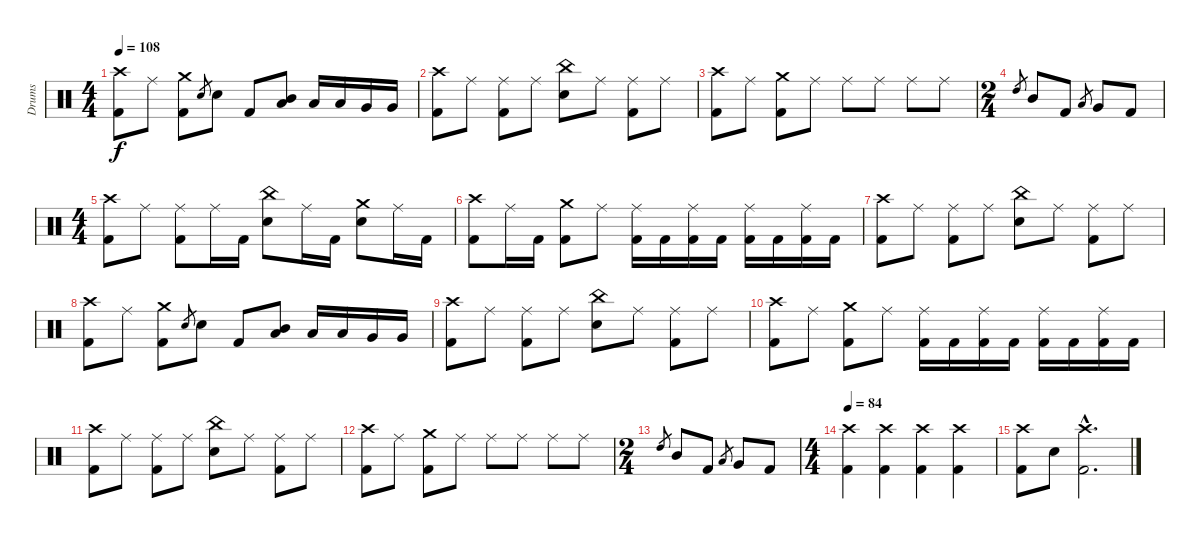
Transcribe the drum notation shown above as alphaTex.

\track ("Drums" "Drums") {instrument percussion}
\staff {score}
\articulation defaults
\ts (4 4)
\tempo 108
\clef neutral
\ks c
("Crash high (hit)" "Kick (hit) 2").8{dy f} "Ride (middle)".8 ("Crash medium (hit)" "Kick (hit) 2").8 "Electric Snare (hit)".8{gr} "Electric Snare (hit)".8 "Kick (hit) 2".8 ("Mid Tom (hit)" "Low Tom (hit)").8 "Low Tom (hit)".16 "Low Tom (hit)".16 "Very Low Tom (hit)".16 "Very Low Tom (hit)".16 |
("Crash high (hit)" "Kick (hit) 2").8 "Ride (middle)".8 ("Ride (middle)" "Kick (hit) 2").8 "Ride (middle)".8 ("China (hit)" "Electric Snare (hit)").8 "Ride (middle)".8 ("Ride (middle)" "Kick (hit) 2").8 "Ride (middle)".8 |
("Crash high (hit)" "Kick (hit) 2").8 "Ride (middle)".8 ("Crash medium (hit)" "Kick (hit) 2").8 "Ride (middle)".8 "Ride (middle)".8 "Ride (middle)".8 "Ride (middle)".8 "Ride (middle)".8 |
\ts (2 4)
"High Tom (hit)".8{gr} "Mid Tom (hit)".8 "Kick (hit) 2".8 "Low Tom (hit)".8{gr} "Very Low Tom (hit)".8 "Kick (hit) 2".8 |
\ts (4 4)
("Crash high (hit)" "Kick (hit) 2").8 "Ride (middle)".8 ("Ride (middle)" "Kick (hit) 2").8 "Ride (middle)".16 "Kick (hit) 2".16 ("China (hit)" "Electric Snare (hit)").8 "Ride (middle)".16 "Kick (hit) 2".16 ("Crash medium (hit)" "Electric Snare (hit)").8 "Ride (middle)".16 "Kick (hit) 2".16 |
("Crash high (hit)" "Kick (hit) 2").8 "Ride (middle)".16 "Kick (hit) 2".16 ("Crash medium (hit)" "Kick (hit) 2").8 "Ride (middle)".8 ("Ride (middle)" "Kick (hit) 2").16 "Kick (hit) 2".16 ("Ride (middle)" "Kick (hit) 2").16 "Kick (hit) 2".16 ("Ride (middle)" "Kick (hit) 2").16 "Kick (hit) 2".16 ("Ride (middle)" "Kick (hit) 2").16 "Kick (hit) 2".16 |
("Crash high (hit)" "Kick (hit) 2").8 "Ride (middle)".8 ("Ride (middle)" "Kick (hit) 2").8 "Ride (middle)".8 ("China (hit)" "Electric Snare (hit)").8 "Ride (middle)".8 ("Ride (middle)" "Kick (hit) 2").8 "Ride (middle)".8 |
("Crash high (hit)" "Kick (hit) 2").8 "Ride (middle)".8 ("Crash medium (hit)" "Kick (hit) 2").8 "Electric Snare (hit)".8{gr} "Electric Snare (hit)".8 "Kick (hit) 2".8 ("Mid Tom (hit)" "Low Tom (hit)").8 "Low Tom (hit)".16 "Low Tom (hit)".16 "Very Low Tom (hit)".16 "Very Low Tom (hit)".16 |
("Crash high (hit)" "Kick (hit) 2").8 "Ride (middle)".8 ("Ride (middle)" "Kick (hit) 2").8 "Ride (middle)".8 ("China (hit)" "Electric Snare (hit)").8 "Ride (middle)".8 ("Ride (middle)" "Kick (hit) 2").8 "Ride (middle)".8 |
("Crash high (hit)" "Kick (hit) 2").8 "Ride (middle)".8 ("Crash medium (hit)" "Kick (hit) 2").8 "Ride (middle)".8 ("Ride (middle)" "Kick (hit) 2").16 "Kick (hit) 2".16 ("Ride (middle)" "Kick (hit) 2").16 "Kick (hit) 2".16 ("Ride (middle)" "Kick (hit) 2").16 "Kick (hit) 2".16 ("Ride (middle)" "Kick (hit) 2").16 "Kick (hit) 2".16 |
("Crash high (hit)" "Kick (hit) 2").8 "Ride (middle)".8 ("Ride (middle)" "Kick (hit) 2").8 "Ride (middle)".8 ("China (hit)" "Electric Snare (hit)").8 "Ride (middle)".8 ("Ride (middle)" "Kick (hit) 2").8 "Ride (middle)".8 |
("Crash high (hit)" "Kick (hit) 2").8 "Ride (middle)".8 ("Crash medium (hit)" "Kick (hit) 2").8 "Ride (middle)".8 "Ride (middle)".8 "Ride (middle)".8 "Ride (middle)".8 "Ride (middle)".8 |
\ts (2 4)
"High Tom (hit)".8{gr} "Mid Tom (hit)".8 "Kick (hit) 2".8 "Low Tom (hit)".8{gr} "Very Low Tom (hit)".8 "Kick (hit) 2".8 |
\ts (4 4)
\tempo 84
("Crash high (hit)" "Kick (hit) 2").4 ("Crash high (hit)" "Kick (hit) 2").4 ("Crash high (hit)" "Kick (hit) 2").4 ("Crash high (hit)" "Kick (hit) 2").4 |
("Crash high (hit)" "Kick (hit) 2").8 "Electric Snare (hit)".8 ("Crash high (hit)"{hac} "Kick (hit) 2"{hac}).2{d}
